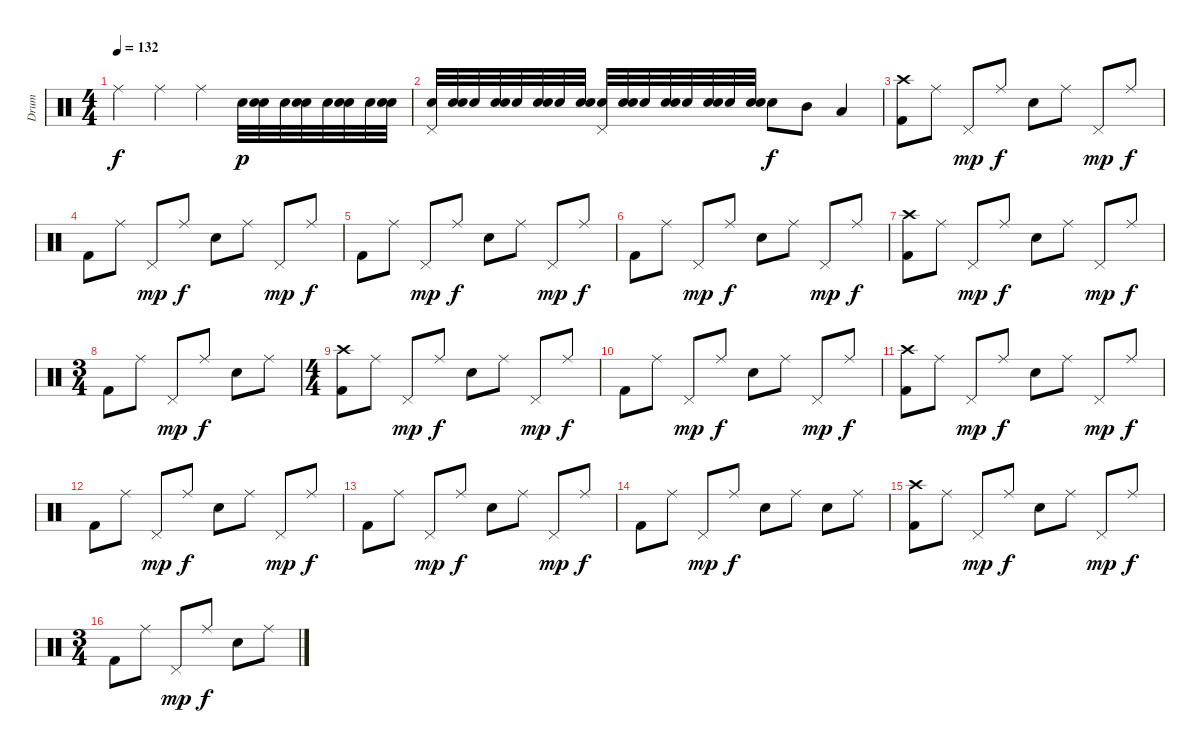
\track ("Drum" "Drum") {instrument percussion}
\staff {score}
\articulation defaults
\ts (4 4)
\tempo 132
\clef neutral
\ks c "Ride (middle)".4{dy f} "Ride (middle)".4 "Ride (middle)".4 "Electric Snare (hit)".32{dy p}
("Electric Snare (hit)" "Electric Snare (hit)").32 "Electric Snare (hit)".32 ("Electric Snare (hit)" "Electric Snare (hit)").32 "Electric Snare (hit)".32 ("Electric Snare (hit)" "Electric Snare (hit)").32 "Electric Snare (hit)".32 ("Electric Snare (hit)" "Electric Snare (hit)").32 |
("Electric Snare (hit)" "Pedal Hi-Hat (hit)").32 ("Electric Snare (hit)" "Electric Snare (hit)").32 "Electric Snare (hit)".32 ("Electric Snare (hit)" "Electric Snare (hit)").32 "Electric Snare (hit)".32 ("Electric Snare (hit)" "Electric Snare (hit)").32 "Electric Snare (hit)".32 ("Electric Snare (hit)" "Electric Snare (hit)").32 ("Electric Snare (hit)" "Pedal Hi-Hat (hit)").32 ("Electric Snare (hit)" "Electric Snare (hit)").32 "Electric Snare (hit)".32 ("Electric Snare (hit)" "Electric Snare (hit)").32 "Electric Snare (hit)".32 ("Electric Snare (hit)" "Electric Snare (hit)").32 "Electric Snare (hit)".32 ("Electric Snare (hit)" "Electric Snare (hit)").32 "Electric Snare (hit)".8{dy f} "Mid Tom (hit)".8 "Low Tom (hit)".4 |
("Crash high (hit)" "Kick (hit) 2").8 "Ride (middle)".8 "Pedal Hi-Hat (hit)".8{dy mp} "Ride (middle)".8{dy f} "Electric Snare (hit)".8 "Ride (middle)".8 "Pedal Hi-Hat (hit)".8{dy mp} "Ride (middle)".8{dy f} |
"Kick (hit) 2".8 "Ride (middle)".8 "Pedal Hi-Hat (hit)".8{dy mp} "Ride (middle)".8{dy f} "Electric Snare (hit)".8 "Ride (middle)".8 "Pedal Hi-Hat (hit)".8{dy mp} "Ride (middle)".8{dy f} |
"Kick (hit) 2".8 "Ride (middle)".8 "Pedal Hi-Hat (hit)".8{dy mp} "Ride (middle)".8{dy f} "Electric Snare (hit)".8 "Ride (middle)".8 "Pedal Hi-Hat (hit)".8{dy mp} "Ride (middle)".8{dy f} |
"Kick (hit) 2".8 "Ride (middle)".8 "Pedal Hi-Hat (hit)".8{dy mp} "Ride (middle)".8{dy f} "Electric Snare (hit)".8 "Ride (middle)".8 "Pedal Hi-Hat (hit)".8{dy mp} "Ride (middle)".8{dy f} |
("Kick (hit) 2" "Crash high (hit)").8 "Ride (middle)".8 "Pedal Hi-Hat (hit)".8{dy mp} "Ride (middle)".8{dy f} "Electric Snare (hit)".8 "Ride (middle)".8 "Pedal Hi-Hat (hit)".8{dy mp} "Ride (middle)".8{dy f} |
\ts (3 4)
"Kick (hit) 2".8 "Ride (middle)".8 "Pedal Hi-Hat (hit)".8{dy mp} "Ride (middle)".8{dy f} "Electric Snare (hit)".8 "Ride (middle)".8 |
\ts (4 4)
("Crash high (hit)" "Kick (hit) 2").8 "Ride (middle)".8 "Pedal Hi-Hat (hit)".8{dy mp} "Ride (middle)".8{dy f} "Electric Snare (hit)".8 "Ride (middle)".8 "Pedal Hi-Hat (hit)".8{dy mp} "Ride (middle)".8{dy f} |
"Kick (hit) 2".8 "Ride (middle)".8 "Pedal Hi-Hat (hit)".8{dy mp} "Ride (middle)".8{dy f} "Electric Snare (hit)".8 "Ride (middle)".8 "Pedal Hi-Hat (hit)".8{dy mp} "Ride (middle)".8{dy f} |
("Kick (hit) 2" "Crash high (hit)").8 "Ride (middle)".8 "Pedal Hi-Hat (hit)".8{dy mp} "Ride (middle)".8{dy f} "Electric Snare (hit)".8 "Ride (middle)".8 "Pedal Hi-Hat (hit)".8{dy mp} "Ride (middle)".8{dy f} |
"Kick (hit) 2".8 "Ride (middle)".8 "Pedal Hi-Hat (hit)".8{dy mp} "Ride (middle)".8{dy f} "Electric Snare (hit)".8 "Ride (middle)".8 "Pedal Hi-Hat (hit)".8{dy mp} "Ride (middle)".8{dy f} |
"Kick (hit) 2".8 "Ride (middle)".8 "Pedal Hi-Hat (hit)".8{dy mp} "Ride (middle)".8{dy f} "Electric Snare (hit)".8 "Ride (middle)".8 "Pedal Hi-Hat (hit)".8{dy mp} "Ride (middle)".8{dy f} |
"Kick (hit) 2".8 "Ride (middle)".8 "Pedal Hi-Hat (hit)".8{dy mp} "Ride (middle)".8{dy f} "Electric Snare (hit)".8 "Ride (middle)".8 "Electric Snare (hit)".8 "Ride (middle)".8 |
("Crash high (hit)" "Kick (hit) 2").8 "Ride (middle)".8 "Pedal Hi-Hat (hit)".8{dy mp} "Ride (middle)".8{dy f} "Electric Snare (hit)".8 "Ride (middle)".8 "Pedal Hi-Hat (hit)".8{dy mp} "Ride (middle)".8{dy f} |
\ts (3 4)
"Kick (hit) 2".8 "Ride (middle)".8 "Pedal Hi-Hat (hit)".8{dy mp} "Ride (middle)".8{dy f} "Electric Snare (hit)".8 "Ride (middle)".8
